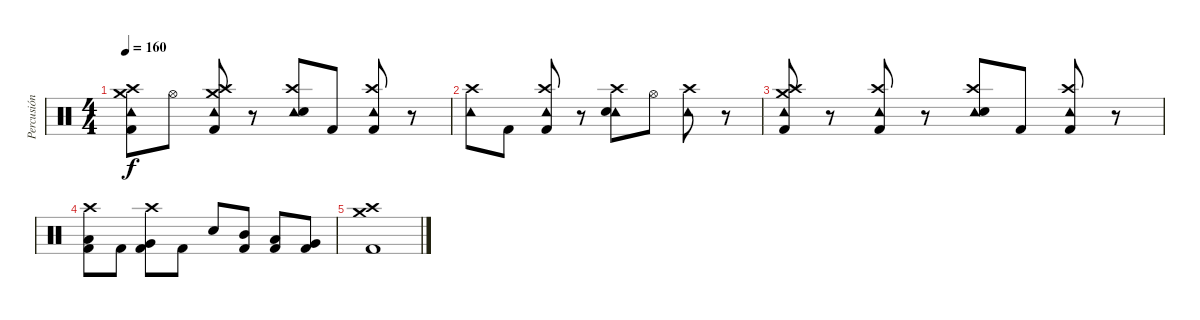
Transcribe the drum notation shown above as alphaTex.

\track ("Percusión" "Percusión") {instrument percussion}
\staff {score}
\articulation defaults
\ts (4 4)
\tempo 160
\clef neutral
\ks c
("Tambourine (hit)" "Crash medium (hit)" "Crash high (hit)" "Kick (hit) 2").8{dy f} "Hi-Hat (open)".8 ("Tambourine (hit)" "Crash medium (hit)" "Crash high (hit)" "Kick (hit) 2").8 r.8 ("Tambourine (hit)" "Crash high (hit)" "Electric Snare (hit)").8 "Kick (hit) 2".8 ("Tambourine (hit)" "Crash high (hit)" "Kick (hit) 2").8 r.8 |
("Tambourine (hit)" "Crash high (hit)").8 "Kick (hit) 2".8 ("Tambourine (hit)" "Crash high (hit)" "Kick (hit) 2").8 r.8 ("Tambourine (hit)" "Crash high (hit)" "Electric Snare (hit)").8 "Hi-Hat (open)".8 ("Tambourine (hit)" "Crash high (hit)").8 r.8 |
("Tambourine (hit)" "Crash medium (hit)" "Crash high (hit)" "Kick (hit) 2").8 r.8 ("Tambourine (hit)" "Crash high (hit)" "Kick (hit) 2").8 r.8 ("Tambourine (hit)" "Crash high (hit)" "Electric Snare (hit)").8 "Kick (hit) 2".8 ("Tambourine (hit)" "Crash high (hit)" "Kick (hit) 2").8 r.8 |
("Crash high (hit)" "Low Tom (hit)" "Kick (hit) 2").8 "Kick (hit) 2".8 ("Crash high (hit)" "Very Low Tom (hit)" "Kick (hit) 2").8 "Kick (hit) 2".8 "Electric Snare (hit)".8 ("Mid Tom (hit)" "Kick (hit) 2").8 ("Low Tom (hit)" "Kick (hit) 2").8 ("Very Low Tom (hit)" "Kick (hit) 2").8 |
("Crash high (hit)" "Crash medium (hit)" "Kick (hit) 2").1{volume 0}
